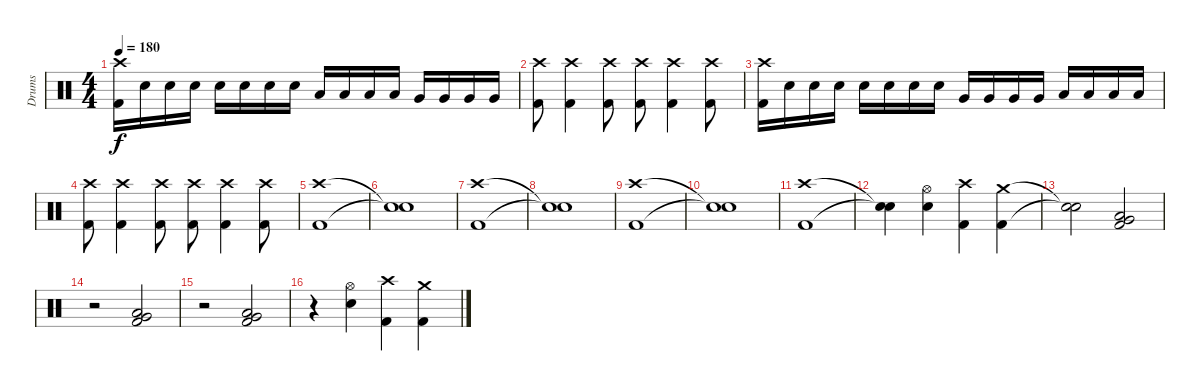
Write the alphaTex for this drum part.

\track ("Drums" "Drums") {instrument percussion}
\staff {score}
\articulation defaults
\ts (4 4)
\tempo 180
\clef neutral
\ks c
("Crash high (hit)" "Kick (hit) 2").16{dy f} "Electric Snare (hit)".16 "Electric Snare (hit)".16 "Electric Snare (hit)".16 "Electric Snare (hit)".16 "Electric Snare (hit)".16 "Electric Snare (hit)".16 "Electric Snare (hit)".16 "Low Tom (hit)".16 "Low Tom (hit)".16 "Low Tom (hit)".16 "Low Tom (hit)".16 "Very Low Tom (hit)".16 "Very Low Tom (hit)".16 "Very Low Tom (hit)".16 "Very Low Tom (hit)".16 |
("Crash high (hit)" "Kick (hit) 2").8 ("Crash high (hit)" "Kick (hit) 2").4 ("Crash high (hit)" "Kick (hit) 2").8 ("Crash high (hit)" "Kick (hit) 2").8 ("Crash high (hit)" "Kick (hit) 2").4 ("Crash high (hit)" "Kick (hit) 2").8 |
("Crash high (hit)" "Kick (hit) 2").16 "Electric Snare (hit)".16 "Electric Snare (hit)".16 "Electric Snare (hit)".16 "Electric Snare (hit)".16 "Electric Snare (hit)".16 "Electric Snare (hit)".16 "Electric Snare (hit)".16 "Very Low Tom (hit)".16 "Very Low Tom (hit)".16 "Very Low Tom (hit)".16 "Very Low Tom (hit)".16 "Low Floor Tom (hit)".16 "Low Floor Tom (hit)".16 "Low Floor Tom (hit)".16 "Low Floor Tom (hit)".16 |
("Crash high (hit)" "Kick (hit) 2").8 ("Crash high (hit)" "Kick (hit) 2").4 ("Crash high (hit)" "Kick (hit) 2").8 ("Crash high (hit)" "Kick (hit) 2").8 ("Crash high (hit)" "Kick (hit) 2").4 ("Crash high (hit)" "Kick (hit) 2").8 |
("Crash high (hit)" "Kick (hit) 2").1 |
("Snare (hit)"{t} "Snare (hit)"{t}).1 |
("Crash high (hit)" "Kick (hit) 2").1 |
("Snare (hit)"{t} "Snare (hit)"{t}).1 |
("Crash high (hit)" "Kick (hit) 2").1 |
("Snare (hit)"{t} "Snare (hit)"{t}).1 |
("Crash high (hit)" "Kick (hit) 2").1 |
("Snare (hit)"{t} "Snare (hit)"{t}).4 ("Hi-Hat (open)" "Electric Snare (hit)").4 ("Crash high (hit)" "Kick (hit) 2").4 ("Crash medium (hit)" "Kick (hit) 2").4 |
("Snare (hit)"{t} "Snare (hit)"{t}).2 ("Very Low Tom (hit)" "Low Floor Tom (hit)" "Kick (hit) 2").2 |
r.2 ("Very Low Tom (hit)" "Low Floor Tom (hit)" "Kick (hit) 2").2 |
r.2 ("Very Low Tom (hit)" "Low Floor Tom (hit)" "Kick (hit) 2").2 |
r.4 ("Hi-Hat (open)" "Electric Snare (hit)").4 ("Crash high (hit)" "Kick (hit) 2").4 ("Crash medium (hit)" "Kick (hit) 2").4
